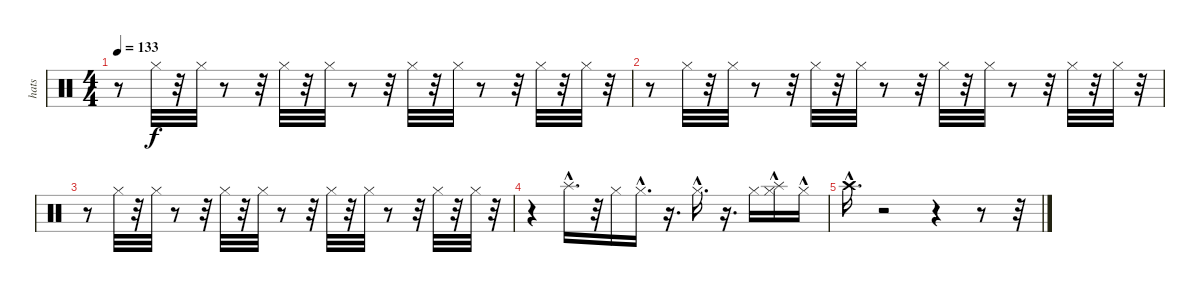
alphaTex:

\track ("hats" "hats") {instrument percussion}
\staff {score}
\articulation defaults
\ts (4 4)
\tempo 133
\clef neutral
\ks c
r.8{dy f} "Hi-Hat (closed)".32 r.32 "Hi-Hat (closed)".32 r.8 r.32 "Hi-Hat (closed)".32 r.32 "Hi-Hat (closed)".32 r.8 r.32 "Hi-Hat (closed)".32 r.32 "Hi-Hat (closed)".32 r.8 r.32 "Hi-Hat (closed)".32 r.32 "Hi-Hat (closed)".32 r.32 |
r.8 "Hi-Hat (closed)".32 r.32 "Hi-Hat (closed)".32 r.8 r.32 "Hi-Hat (closed)".32 r.32 "Hi-Hat (closed)".32 r.8 r.32 "Hi-Hat (closed)".32 r.32 "Hi-Hat (closed)".32 r.8 r.32 "Hi-Hat (closed)".32 r.32 "Hi-Hat (closed)".32 r.32 |
r.8 "Hi-Hat (closed)".32 r.32 "Hi-Hat (closed)".32 r.8 r.32 "Hi-Hat (closed)".32 r.32 "Hi-Hat (closed)".32 r.8 r.32 "Hi-Hat (closed)".32 r.32 "Hi-Hat (closed)".32 r.8 r.32 "Hi-Hat (closed)".32 r.32 "Hi-Hat (closed)".32 r.32 |
r.4 "Splash (hit)"{hac}.16{d} r.32 "Hi-Hat (closed)".16 "Hi-Hat (closed)"{hac}.16{d} r.16{d} "Hi-Hat (closed)"{hac}.16{d} r.16{d} "Hi-Hat (closed)".16 ("Hi-Hat (closed)" "Splash (hit)"{hac}).16 "Hi-Hat (closed)"{hac}.16 |
"Crash high (hit)"{hac}.16{d} r.2 r.4 r.8 r.32
